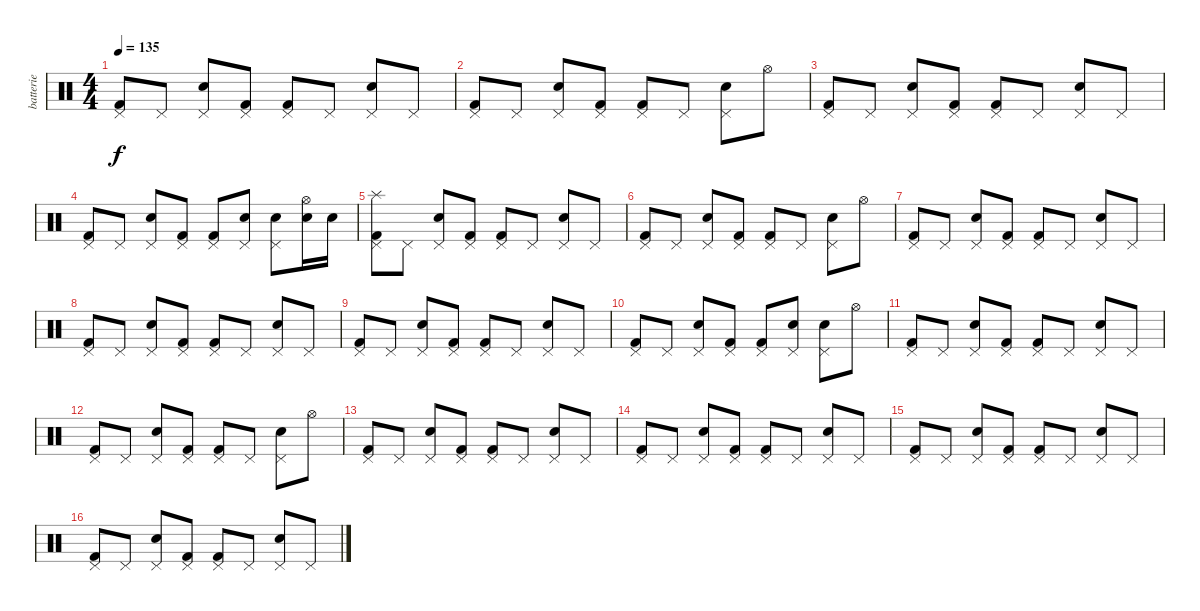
\track ("batterie" "batterie") {instrument percussion}
\staff {score}
\articulation defaults
\ts (4 4)
\tempo 135
\clef neutral
\ks c
("Pedal Hi-Hat (hit)" "Kick (hit) 2").8{dy f} "Pedal Hi-Hat (hit)".8 ("Pedal Hi-Hat (hit)" "Snare (hit) 2").8 ("Pedal Hi-Hat (hit)" "Kick (hit) 2").8 ("Pedal Hi-Hat (hit)" "Kick (hit) 2").8 "Pedal Hi-Hat (hit)".8 ("Pedal Hi-Hat (hit)" "Snare (hit) 2").8 "Pedal Hi-Hat (hit)".8 |
("Pedal Hi-Hat (hit)" "Kick (hit) 2").8 "Pedal Hi-Hat (hit)".8 ("Pedal Hi-Hat (hit)" "Snare (hit) 2").8 ("Pedal Hi-Hat (hit)" "Kick (hit) 2").8 ("Pedal Hi-Hat (hit)" "Kick (hit) 2").8 "Pedal Hi-Hat (hit)".8 ("Pedal Hi-Hat (hit)" "Snare (hit) 2").8 "Hi-Hat (open)".8 |
("Pedal Hi-Hat (hit)" "Kick (hit) 2").8 "Pedal Hi-Hat (hit)".8 ("Pedal Hi-Hat (hit)" "Snare (hit) 2").8 ("Pedal Hi-Hat (hit)" "Kick (hit) 2").8 ("Pedal Hi-Hat (hit)" "Kick (hit) 2").8 "Pedal Hi-Hat (hit)".8 ("Pedal Hi-Hat (hit)" "Snare (hit) 2").8 "Pedal Hi-Hat (hit)".8 |
("Pedal Hi-Hat (hit)" "Kick (hit) 2").8 "Pedal Hi-Hat (hit)".8 ("Pedal Hi-Hat (hit)" "Snare (hit) 2").8 ("Pedal Hi-Hat (hit)" "Kick (hit) 2").8 ("Pedal Hi-Hat (hit)" "Kick (hit) 2").8 ("Pedal Hi-Hat (hit)" "Snare (hit) 2").8 ("Pedal Hi-Hat (hit)" "Snare (hit) 2").8 ("Hi-Hat (open)" "Snare (hit) 2").16 "Snare (hit) 2".16 |
("Splash (hit)" "Pedal Hi-Hat (hit)" "Kick (hit) 2").8 "Pedal Hi-Hat (hit)".8 ("Pedal Hi-Hat (hit)" "Snare (hit) 2").8 ("Pedal Hi-Hat (hit)" "Kick (hit) 2").8 ("Pedal Hi-Hat (hit)" "Kick (hit) 2").8 "Pedal Hi-Hat (hit)".8 ("Pedal Hi-Hat (hit)" "Snare (hit) 2").8 "Pedal Hi-Hat (hit)".8 |
("Pedal Hi-Hat (hit)" "Kick (hit) 2").8 "Pedal Hi-Hat (hit)".8 ("Pedal Hi-Hat (hit)" "Snare (hit) 2").8 ("Pedal Hi-Hat (hit)" "Kick (hit) 2").8 ("Pedal Hi-Hat (hit)" "Kick (hit) 2").8 "Pedal Hi-Hat (hit)".8 ("Pedal Hi-Hat (hit)" "Snare (hit) 2").8 "Hi-Hat (open)".8 |
("Pedal Hi-Hat (hit)" "Kick (hit) 2").8 "Pedal Hi-Hat (hit)".8 ("Pedal Hi-Hat (hit)" "Snare (hit) 2").8 ("Pedal Hi-Hat (hit)" "Kick (hit) 2").8 ("Pedal Hi-Hat (hit)" "Kick (hit) 2").8 "Pedal Hi-Hat (hit)".8 ("Pedal Hi-Hat (hit)" "Snare (hit) 2").8 "Pedal Hi-Hat (hit)".8 |
("Pedal Hi-Hat (hit)" "Kick (hit) 2").8 "Pedal Hi-Hat (hit)".8 ("Pedal Hi-Hat (hit)" "Snare (hit) 2").8 ("Pedal Hi-Hat (hit)" "Kick (hit) 2").8 ("Pedal Hi-Hat (hit)" "Kick (hit) 2").8 "Pedal Hi-Hat (hit)".8 ("Pedal Hi-Hat (hit)" "Snare (hit) 2").8 "Pedal Hi-Hat (hit)".8 |
("Pedal Hi-Hat (hit)" "Kick (hit) 2").8 "Pedal Hi-Hat (hit)".8 ("Pedal Hi-Hat (hit)" "Snare (hit) 2").8 ("Pedal Hi-Hat (hit)" "Kick (hit) 2").8 ("Pedal Hi-Hat (hit)" "Kick (hit) 2").8 "Pedal Hi-Hat (hit)".8 ("Pedal Hi-Hat (hit)" "Snare (hit) 2").8 "Pedal Hi-Hat (hit)".8 |
("Pedal Hi-Hat (hit)" "Kick (hit) 2").8 "Pedal Hi-Hat (hit)".8 ("Pedal Hi-Hat (hit)" "Snare (hit) 2").8 ("Pedal Hi-Hat (hit)" "Kick (hit) 2").8 ("Pedal Hi-Hat (hit)" "Kick (hit) 2").8 ("Pedal Hi-Hat (hit)" "Snare (hit) 2").8 ("Pedal Hi-Hat (hit)" "Snare (hit) 2").8 "Hi-Hat (open)".8 |
("Pedal Hi-Hat (hit)" "Kick (hit) 2").8 "Pedal Hi-Hat (hit)".8 ("Pedal Hi-Hat (hit)" "Snare (hit) 2").8 ("Pedal Hi-Hat (hit)" "Kick (hit) 2").8 ("Pedal Hi-Hat (hit)" "Kick (hit) 2").8 "Pedal Hi-Hat (hit)".8 ("Pedal Hi-Hat (hit)" "Snare (hit) 2").8 "Pedal Hi-Hat (hit)".8 |
("Pedal Hi-Hat (hit)" "Kick (hit) 2").8 "Pedal Hi-Hat (hit)".8 ("Pedal Hi-Hat (hit)" "Snare (hit) 2").8 ("Pedal Hi-Hat (hit)" "Kick (hit) 2").8 ("Pedal Hi-Hat (hit)" "Kick (hit) 2").8 "Pedal Hi-Hat (hit)".8 ("Pedal Hi-Hat (hit)" "Snare (hit) 2").8 "Hi-Hat (open)".8 |
("Pedal Hi-Hat (hit)" "Kick (hit) 2").8 "Pedal Hi-Hat (hit)".8 ("Pedal Hi-Hat (hit)" "Snare (hit) 2").8 ("Pedal Hi-Hat (hit)" "Kick (hit) 2").8 ("Pedal Hi-Hat (hit)" "Kick (hit) 2").8 "Pedal Hi-Hat (hit)".8 ("Pedal Hi-Hat (hit)" "Snare (hit) 2").8 "Pedal Hi-Hat (hit)".8 |
("Pedal Hi-Hat (hit)" "Kick (hit) 2").8 "Pedal Hi-Hat (hit)".8 ("Pedal Hi-Hat (hit)" "Snare (hit) 2").8 ("Pedal Hi-Hat (hit)" "Kick (hit) 2").8 ("Pedal Hi-Hat (hit)" "Kick (hit) 2").8 "Pedal Hi-Hat (hit)".8 ("Pedal Hi-Hat (hit)" "Snare (hit) 2").8 "Pedal Hi-Hat (hit)".8 |
("Pedal Hi-Hat (hit)" "Kick (hit) 2").8 "Pedal Hi-Hat (hit)".8 ("Pedal Hi-Hat (hit)" "Snare (hit) 2").8 ("Pedal Hi-Hat (hit)" "Kick (hit) 2").8 ("Pedal Hi-Hat (hit)" "Kick (hit) 2").8 "Pedal Hi-Hat (hit)".8 ("Pedal Hi-Hat (hit)" "Snare (hit) 2").8 "Pedal Hi-Hat (hit)".8 |
("Pedal Hi-Hat (hit)" "Kick (hit) 2").8 "Pedal Hi-Hat (hit)".8 ("Pedal Hi-Hat (hit)" "Snare (hit) 2").8 ("Pedal Hi-Hat (hit)" "Kick (hit) 2").8 ("Pedal Hi-Hat (hit)" "Kick (hit) 2").8 "Pedal Hi-Hat (hit)".8 ("Pedal Hi-Hat (hit)" "Snare (hit) 2").8 "Pedal Hi-Hat (hit)".8
